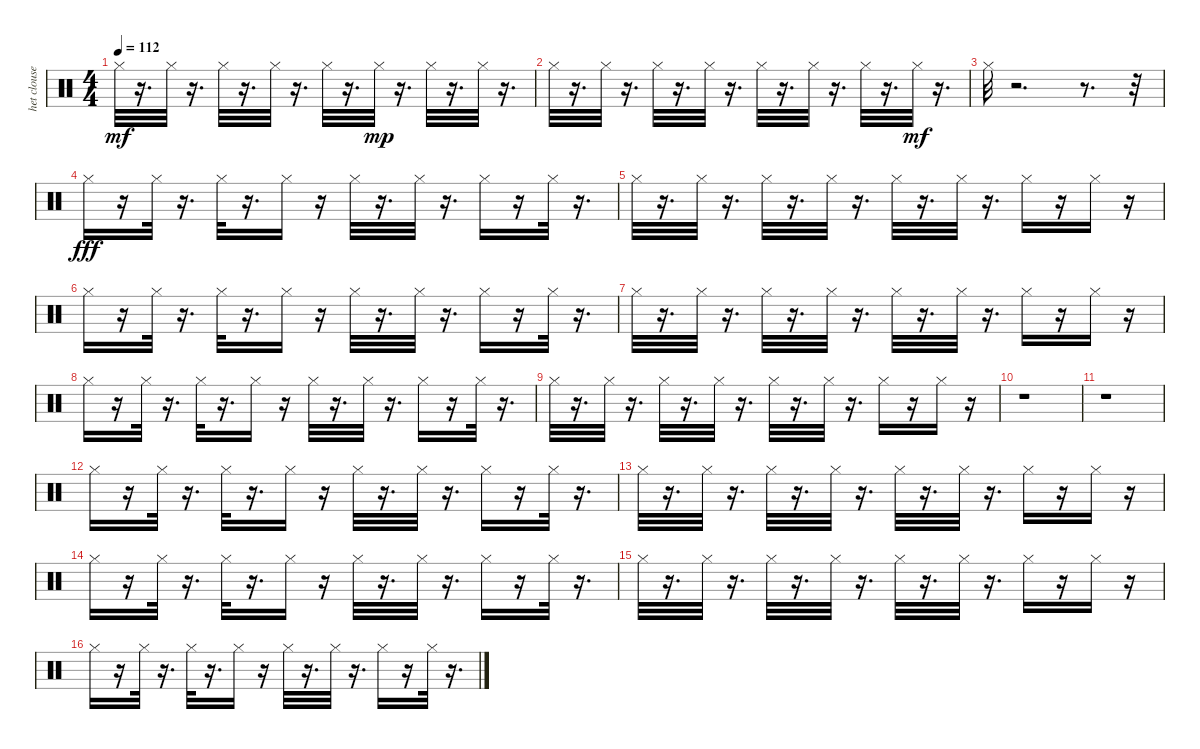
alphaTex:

\track ("het cloused" "het clouse") {instrument percussion}
\staff {score}
\articulation defaults
\ts (4 4)
\tempo 112
\clef neutral
\ks c "Hi-Hat (closed)".32{dy mf}
r.16{d} "Hi-Hat (closed)".32 r.16{d} "Hi-Hat (closed)".32 r.16{d} "Hi-Hat (closed)".32 r.16{d} "Hi-Hat (closed)".32 r.16{d} "Hi-Hat (closed)".32{dy mp} r.16{d} "Hi-Hat (closed)".32 r.16{d} "Hi-Hat (closed)".32 r.16{d} |
"Hi-Hat (closed)".32 r.16{d} "Hi-Hat (closed)".32 r.16{d} "Hi-Hat (closed)".32 r.16{d} "Hi-Hat (closed)".32 r.16{d} "Hi-Hat (closed)".32 r.16{d} "Hi-Hat (closed)".32 r.16{d} "Hi-Hat (closed)".32 r.16{d} "Hi-Hat (closed)".32{dy mf} r.16{d} |
"Hi-Hat (closed)".32 r.2{d} r.8{d} r.32 |
"Hi-Hat (closed)".16{dy fff} r.16 "Hi-Hat (closed)".32 r.16{d} "Hi-Hat (closed)".32 r.16{d} "Hi-Hat (closed)".16 r.16 "Hi-Hat (closed)".32 r.16{d} "Hi-Hat (closed)".32 r.16{d} "Hi-Hat (closed)".16 r.16 "Hi-Hat (closed)".32 r.16{d} |
"Hi-Hat (closed)".32 r.16{d} "Hi-Hat (closed)".32 r.16{d} "Hi-Hat (closed)".32 r.16{d} "Hi-Hat (closed)".32 r.16{d} "Hi-Hat (closed)".32 r.16{d} "Hi-Hat (closed)".32 r.16{d} "Hi-Hat (closed)".16 r.16 "Hi-Hat (closed)".16 r.16 |
"Hi-Hat (closed)".16 r.16 "Hi-Hat (closed)".32 r.16{d} "Hi-Hat (closed)".32 r.16{d} "Hi-Hat (closed)".16 r.16 "Hi-Hat (closed)".32 r.16{d} "Hi-Hat (closed)".32 r.16{d} "Hi-Hat (closed)".16 r.16 "Hi-Hat (closed)".32 r.16{d} |
"Hi-Hat (closed)".32 r.16{d} "Hi-Hat (closed)".32 r.16{d} "Hi-Hat (closed)".32 r.16{d} "Hi-Hat (closed)".32 r.16{d} "Hi-Hat (closed)".32 r.16{d} "Hi-Hat (closed)".32 r.16{d} "Hi-Hat (closed)".16 r.16 "Hi-Hat (closed)".16 r.16 |
"Hi-Hat (closed)".16 r.16 "Hi-Hat (closed)".32 r.16{d} "Hi-Hat (closed)".32 r.16{d} "Hi-Hat (closed)".16 r.16 "Hi-Hat (closed)".32 r.16{d} "Hi-Hat (closed)".32 r.16{d} "Hi-Hat (closed)".16 r.16 "Hi-Hat (closed)".32 r.16{d} |
"Hi-Hat (closed)".32 r.16{d} "Hi-Hat (closed)".32 r.16{d} "Hi-Hat (closed)".32 r.16{d} "Hi-Hat (closed)".32 r.16{d} "Hi-Hat (closed)".32 r.16{d} "Hi-Hat (closed)".32 r.16{d} "Hi-Hat (closed)".16 r.16 "Hi-Hat (closed)".16 r.16 |
r.1 |
r.1 |
"Hi-Hat (closed)".16 r.16 "Hi-Hat (closed)".32 r.16{d} "Hi-Hat (closed)".32 r.16{d} "Hi-Hat (closed)".16 r.16 "Hi-Hat (closed)".32 r.16{d} "Hi-Hat (closed)".32 r.16{d} "Hi-Hat (closed)".16 r.16 "Hi-Hat (closed)".32 r.16{d} |
"Hi-Hat (closed)".32 r.16{d} "Hi-Hat (closed)".32 r.16{d} "Hi-Hat (closed)".32 r.16{d} "Hi-Hat (closed)".32 r.16{d} "Hi-Hat (closed)".32 r.16{d} "Hi-Hat (closed)".32 r.16{d} "Hi-Hat (closed)".16 r.16 "Hi-Hat (closed)".16 r.16 |
"Hi-Hat (closed)".16 r.16 "Hi-Hat (closed)".32 r.16{d} "Hi-Hat (closed)".32 r.16{d} "Hi-Hat (closed)".16 r.16 "Hi-Hat (closed)".32 r.16{d} "Hi-Hat (closed)".32 r.16{d} "Hi-Hat (closed)".16 r.16 "Hi-Hat (closed)".32 r.16{d} |
"Hi-Hat (closed)".32 r.16{d} "Hi-Hat (closed)".32 r.16{d} "Hi-Hat (closed)".32 r.16{d} "Hi-Hat (closed)".32 r.16{d} "Hi-Hat (closed)".32 r.16{d} "Hi-Hat (closed)".32 r.16{d} "Hi-Hat (closed)".16 r.16 "Hi-Hat (closed)".16 r.16 |
"Hi-Hat (closed)".16 r.16 "Hi-Hat (closed)".32 r.16{d} "Hi-Hat (closed)".32 r.16{d} "Hi-Hat (closed)".16 r.16 "Hi-Hat (closed)".32 r.16{d} "Hi-Hat (closed)".32 r.16{d} "Hi-Hat (closed)".16 r.16 "Hi-Hat (closed)".32 r.16{d}
